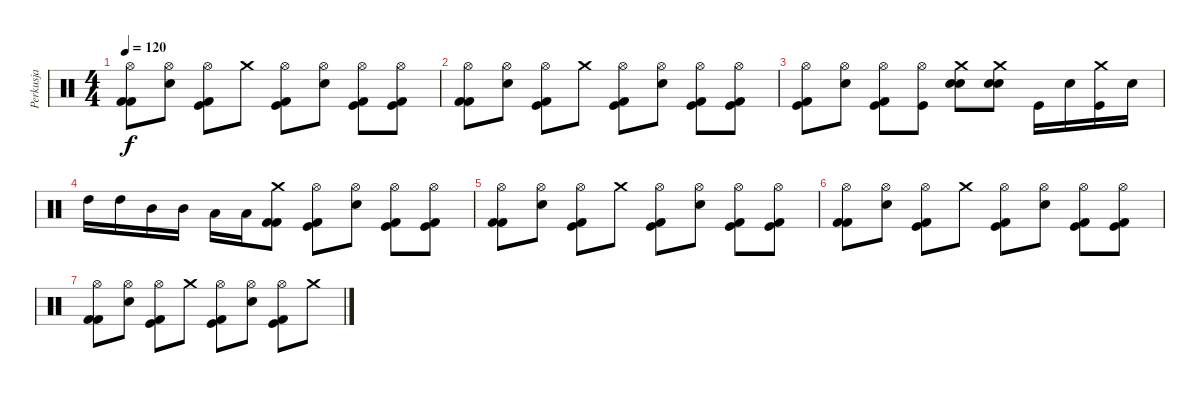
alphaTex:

\track ("Perkusja" "Perkusja") {instrument percussion}
\staff {score}
\articulation defaults
\ts (4 4)
\tempo 120
\clef neutral
\ks c
("Hi-Hat (open)" "Kick (hit) 2" "Kick (hit) 2").8{dy f} ("Hi-Hat (open)" "Snare (hit) 2").8 ("Hi-Hat (open)" "Kick (hit)" "Kick (hit) 2").8 "Crash medium (hit)".8 ("Hi-Hat (open)" "Kick (hit)" "Kick (hit) 2").8 ("Hi-Hat (open)" "Snare (hit) 2").8 ("Hi-Hat (open)" "Kick (hit)" "Kick (hit) 2").8 ("Hi-Hat (open)" "Kick (hit)" "Kick (hit) 2").8 |
("Hi-Hat (open)" "Kick (hit) 2" "Kick (hit) 2").8 ("Hi-Hat (open)" "Snare (hit) 2").8 ("Hi-Hat (open)" "Kick (hit)" "Kick (hit) 2").8 "Crash medium (hit)".8 ("Hi-Hat (open)" "Kick (hit)" "Kick (hit) 2").8 ("Hi-Hat (open)" "Snare (hit) 2").8 ("Hi-Hat (open)" "Kick (hit)" "Kick (hit) 2").8 ("Hi-Hat (open)" "Kick (hit)" "Kick (hit) 2").8 |
("Hi-Hat (open)" "Kick (hit)" "Kick (hit) 2").8 ("Hi-Hat (open)" "Snare (hit) 2").8 ("Hi-Hat (open)" "Kick (hit)" "Kick (hit) 2").8 ("Hi-Hat (open)" "Kick (hit)").8 ("Crash medium (hit)" "Snare (hit) 2" "Electric Snare (hit)").8 ("Crash medium (hit)" "Snare (hit) 2" "Electric Snare (hit)").8 "Kick (hit)".16 "Snare (hit) 2".16 ("Crash medium (hit)" "Kick (hit)").16 "Snare (hit) 2".16 |
"High Tom (hit)".16 "High Tom (hit)".16 "Mid Tom (hit)".16 "Mid Tom (hit)".16 "Low Tom (hit)".16 "Low Tom (hit)".16 ("Crash medium (hit)" "Kick (hit) 2" "Kick (hit) 2").8 ("Hi-Hat (open)" "Kick (hit)" "Kick (hit) 2").8 ("Hi-Hat (open)" "Snare (hit) 2").8 ("Hi-Hat (open)" "Kick (hit)" "Kick (hit) 2").8 ("Hi-Hat (open)" "Kick (hit)" "Kick (hit) 2").8 |
("Hi-Hat (open)" "Kick (hit) 2" "Kick (hit) 2").8 ("Hi-Hat (open)" "Snare (hit) 2").8 ("Hi-Hat (open)" "Kick (hit)" "Kick (hit) 2").8 "Crash medium (hit)".8 ("Hi-Hat (open)" "Kick (hit)" "Kick (hit) 2").8 ("Hi-Hat (open)" "Snare (hit) 2").8 ("Hi-Hat (open)" "Kick (hit)" "Kick (hit) 2").8 ("Hi-Hat (open)" "Kick (hit)" "Kick (hit) 2").8 |
("Hi-Hat (open)" "Kick (hit) 2" "Kick (hit) 2").8 ("Hi-Hat (open)" "Snare (hit) 2").8 ("Hi-Hat (open)" "Kick (hit)" "Kick (hit) 2").8 "Crash medium (hit)".8 ("Hi-Hat (open)" "Kick (hit)" "Kick (hit) 2").8 ("Hi-Hat (open)" "Snare (hit) 2").8 ("Hi-Hat (open)" "Kick (hit)" "Kick (hit) 2").8 ("Hi-Hat (open)" "Kick (hit)" "Kick (hit) 2").8 |
("Hi-Hat (open)" "Kick (hit) 2" "Kick (hit) 2").8 ("Hi-Hat (open)" "Snare (hit) 2").8 ("Hi-Hat (open)" "Kick (hit)" "Kick (hit) 2").8 "Crash medium (hit)".8 ("Hi-Hat (open)" "Kick (hit)" "Kick (hit) 2").8 ("Hi-Hat (open)" "Snare (hit) 2").8 ("Hi-Hat (open)" "Kick (hit)" "Kick (hit) 2").8 "Crash medium (hit)".8
